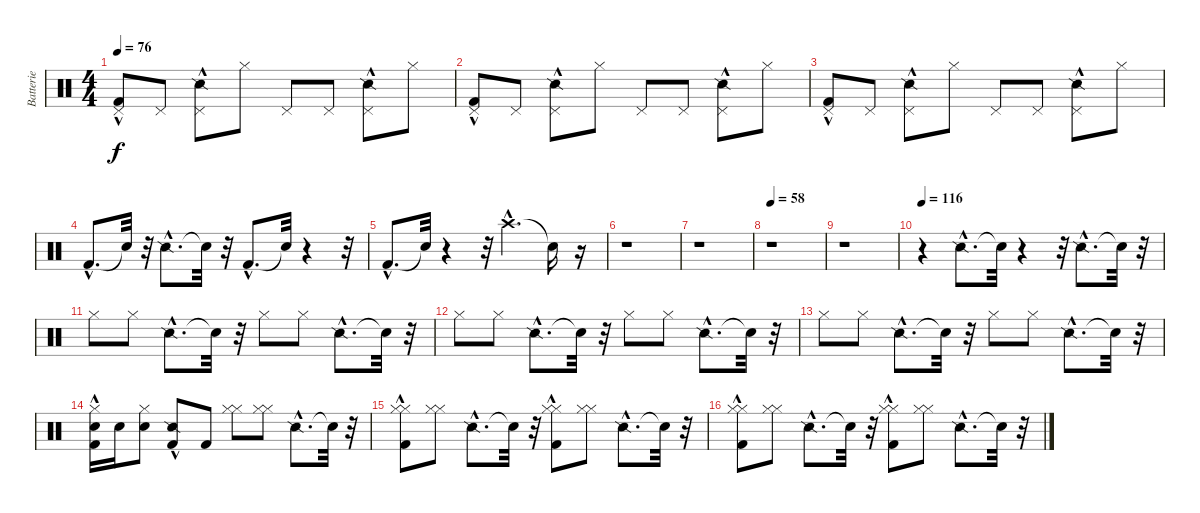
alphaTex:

\track ("Batterie" "Batterie") {instrument percussion}
\staff {score}
\articulation defaults
\ts (4 4)
\tempo 76
\clef neutral
\ks c
("Kick (hit) 2"{hac} "Pedal Hi-Hat (hit)").8{dy f} "Pedal Hi-Hat (hit)".8 ("Snare (side stick) 2"{hac} "Pedal Hi-Hat (hit)").8 "Hi-Hat (closed)".8 "Pedal Hi-Hat (hit)".8 "Pedal Hi-Hat (hit)".8 ("Snare (side stick) 2"{hac} "Pedal Hi-Hat (hit)").8 "Hi-Hat (closed)".8 |
("Kick (hit) 2"{hac} "Pedal Hi-Hat (hit)").8 "Pedal Hi-Hat (hit)".8 ("Snare (side stick) 2"{hac} "Pedal Hi-Hat (hit)").8 "Hi-Hat (closed)".8 "Pedal Hi-Hat (hit)".8 "Pedal Hi-Hat (hit)".8 ("Snare (side stick) 2"{hac} "Pedal Hi-Hat (hit)").8 "Hi-Hat (closed)".8 |
("Kick (hit) 2"{hac} "Pedal Hi-Hat (hit)").8 "Pedal Hi-Hat (hit)".8 ("Snare (side stick) 2"{hac} "Pedal Hi-Hat (hit)").8 "Hi-Hat (closed)".8 "Pedal Hi-Hat (hit)".8 "Pedal Hi-Hat (hit)".8 ("Snare (side stick) 2"{hac} "Pedal Hi-Hat (hit)").8 "Hi-Hat (closed)".8 |
"Kick (hit) 2"{hac}.8{d} "Snare (hit)"{t}.32 r.32 "Snare (side stick) 2"{hac}.8{d} "Snare (hit)"{t}.32 r.32 "Kick (hit) 2"{hac}.8{d} "Snare (hit)"{t}.32 r.4 r.32 |
"Kick (hit) 2"{hac}.8{d} "Snare (hit)"{t}.32 r.4 r.32 "Crash high (hit)"{hac}.4{d} "Snare (hit)"{t}.16 r.16 |
r.1 |
r.1 |
\tempo 58
r.1 |
r.1 |
\tempo 116
r.4 "Snare (side stick) 2"{hac}.8{d} "Snare (hit)"{t}.32 r.4 r.32 "Snare (side stick) 2"{hac}.8{d} "Snare (hit)"{t}.32 r.32 |
"Hi-Hat (closed)".8 "Hi-Hat (closed)".8 "Snare (side stick) 2"{hac}.8{d} "Snare (hit)"{t}.32 r.32 "Hi-Hat (closed)".8 "Hi-Hat (closed)".8 "Snare (side stick) 2"{hac}.8{d} "Snare (hit)"{t}.32 r.32 |
"Hi-Hat (closed)".8 "Hi-Hat (closed)".8 "Snare (side stick) 2"{hac}.8{d} "Snare (hit)"{t}.32 r.32 "Hi-Hat (closed)".8 "Hi-Hat (closed)".8 "Snare (side stick) 2"{hac}.8{d} "Snare (hit)"{t}.32 r.32 |
"Hi-Hat (closed)".8 "Hi-Hat (closed)".8 "Snare (side stick) 2"{hac}.8{d} "Snare (hit)"{t}.32 r.32 "Hi-Hat (closed)".8 "Hi-Hat (closed)".8 "Snare (side stick) 2"{hac}.8{d} "Snare (hit)"{t}.32 r.32 |
("Kick (hit) 2"{hac} "Snare (hit) 2" "Hi-Hat (closed)").16 "Snare (hit) 2".16 ("Electric Snare (hit)" "Hi-Hat (closed)").8 ("Snare (side stick) 2"{hac} "Kick (hit) 2").8 "Kick (hit) 2".8 ("Hi-Hat (closed)" "Hi-Hat (closed)").8 ("Hi-Hat (closed)" "Hi-Hat (closed)").8 "Snare (side stick) 2"{hac}.8{d} "Snare (hit)"{t}.32 r.32 |
("Kick (hit) 2"{hac} "Hi-Hat (closed)" "Hi-Hat (closed)").8 ("Hi-Hat (closed)" "Hi-Hat (closed)").8 "Snare (side stick) 2"{hac}.8{d} "Snare (hit)"{t}.32 r.32 ("Kick (hit) 2"{hac} "Hi-Hat (closed)" "Hi-Hat (closed)").8 ("Hi-Hat (closed)" "Hi-Hat (closed)").8 "Snare (side stick) 2"{hac}.8{d} "Snare (hit)"{t}.32 r.32 |
("Kick (hit) 2"{hac} "Hi-Hat (closed)" "Hi-Hat (closed)").8 ("Hi-Hat (closed)" "Hi-Hat (closed)").8 "Snare (side stick) 2"{hac}.8{d} "Snare (hit)"{t}.32 r.32 ("Kick (hit) 2"{hac} "Hi-Hat (closed)" "Hi-Hat (closed)").8 ("Hi-Hat (closed)" "Hi-Hat (closed)").8 "Snare (side stick) 2"{hac}.8{d} "Snare (hit)"{t}.32 r.32
